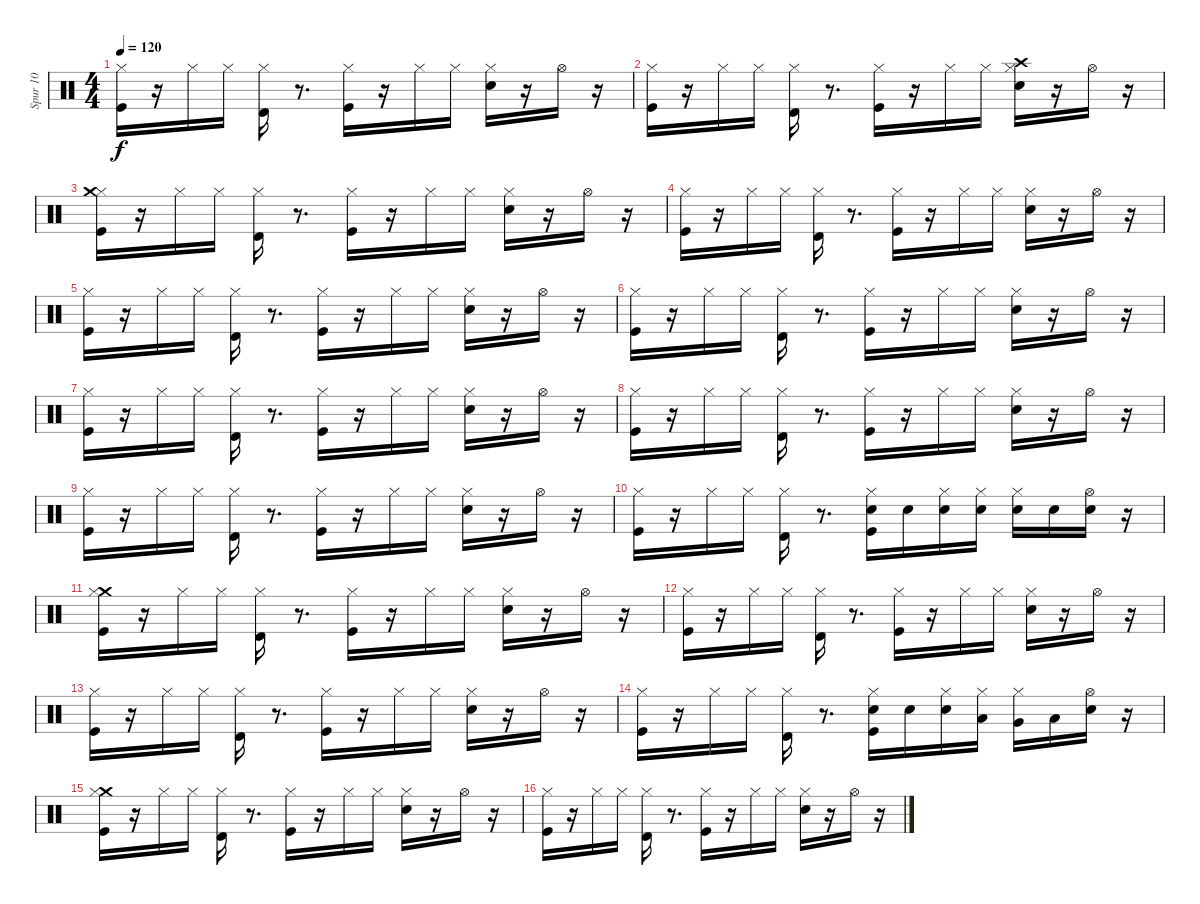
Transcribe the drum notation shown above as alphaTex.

\track ("Spur 10" "Spur 10") {instrument percussion}
\staff {score}
\articulation defaults
\ts (4 4)
\tempo 120
\clef neutral
\ks c
("Hi-Hat (closed)" "Kick (hit)").16{dy f} r.16 "Hi-Hat (closed)".16 "Hi-Hat (closed)".16 ("Hi-Hat (closed)" "Timbale high (hit)").16 r.8{d} ("Hi-Hat (closed)" "Kick (hit)").16 r.16 "Hi-Hat (closed)".16 "Hi-Hat (closed)".16 ("Hi-Hat (closed)" "Snare (hit) 2").16 r.16 "Hi-Hat (open)".16 r.16 |
("Hi-Hat (closed)" "Kick (hit)").16 r.16 "Hi-Hat (closed)".16 "Hi-Hat (closed)".16 ("Hi-Hat (closed)" "Timbale high (hit)").16 r.8{d} ("Hi-Hat (closed)" "Kick (hit)").16 r.16 "Hi-Hat (closed)".16 "Hi-Hat (closed)".16 ("Crash high (hit)" "Hi-Hat (closed)" "Snare (hit) 2").16 r.16 "Hi-Hat (open)".16 r.16 |
("Hi-Hat (closed)" "Kick (hit)" "Crash medium (hit)").16 r.16 "Hi-Hat (closed)".16 "Hi-Hat (closed)".16 ("Hi-Hat (closed)" "Timbale high (hit)").16 r.8{d} ("Hi-Hat (closed)" "Kick (hit)").16 r.16 "Hi-Hat (closed)".16 "Hi-Hat (closed)".16 ("Hi-Hat (closed)" "Snare (hit) 2").16 r.16 "Hi-Hat (open)".16 r.16 |
("Hi-Hat (closed)" "Kick (hit)").16 r.16 "Hi-Hat (closed)".16 "Hi-Hat (closed)".16 ("Hi-Hat (closed)" "Timbale high (hit)").16 r.8{d} ("Hi-Hat (closed)" "Kick (hit)").16 r.16 "Hi-Hat (closed)".16 "Hi-Hat (closed)".16 ("Hi-Hat (closed)" "Snare (hit) 2").16 r.16 "Hi-Hat (open)".16 r.16 |
("Hi-Hat (closed)" "Kick (hit)").16 r.16 "Hi-Hat (closed)".16 "Hi-Hat (closed)".16 ("Hi-Hat (closed)" "Timbale high (hit)").16 r.8{d} ("Hi-Hat (closed)" "Kick (hit)").16 r.16 "Hi-Hat (closed)".16 "Hi-Hat (closed)".16 ("Hi-Hat (closed)" "Snare (hit) 2").16 r.16 "Hi-Hat (open)".16 r.16 |
("Hi-Hat (closed)" "Kick (hit)").16 r.16 "Hi-Hat (closed)".16 "Hi-Hat (closed)".16 ("Hi-Hat (closed)" "Timbale high (hit)").16 r.8{d} ("Hi-Hat (closed)" "Kick (hit)").16 r.16 "Hi-Hat (closed)".16 "Hi-Hat (closed)".16 ("Hi-Hat (closed)" "Snare (hit) 2").16 r.16 "Hi-Hat (open)".16 r.16 |
("Hi-Hat (closed)" "Kick (hit)").16 r.16 "Hi-Hat (closed)".16 "Hi-Hat (closed)".16 ("Hi-Hat (closed)" "Timbale high (hit)").16 r.8{d} ("Hi-Hat (closed)" "Kick (hit)").16 r.16 "Hi-Hat (closed)".16 "Hi-Hat (closed)".16 ("Hi-Hat (closed)" "Snare (hit) 2").16 r.16 "Hi-Hat (open)".16 r.16 |
("Hi-Hat (closed)" "Kick (hit)").16 r.16 "Hi-Hat (closed)".16 "Hi-Hat (closed)".16 ("Hi-Hat (closed)" "Timbale high (hit)").16 r.8{d} ("Hi-Hat (closed)" "Kick (hit)").16 r.16 "Hi-Hat (closed)".16 "Hi-Hat (closed)".16 ("Hi-Hat (closed)" "Snare (hit) 2").16 r.16 "Hi-Hat (open)".16 r.16 |
("Hi-Hat (closed)" "Kick (hit)").16 r.16 "Hi-Hat (closed)".16 "Hi-Hat (closed)".16 ("Hi-Hat (closed)" "Timbale high (hit)").16 r.8{d} ("Hi-Hat (closed)" "Kick (hit)").16 r.16 "Hi-Hat (closed)".16 "Hi-Hat (closed)".16 ("Hi-Hat (closed)" "Snare (hit) 2").16 r.16 "Hi-Hat (open)".16 r.16 |
("Hi-Hat (closed)" "Kick (hit)").16 r.16 "Hi-Hat (closed)".16 "Hi-Hat (closed)".16 ("Hi-Hat (closed)" "Timbale high (hit)").16 r.8{d} ("Electric Snare (hit)" "Hi-Hat (closed)" "Kick (hit)").16 "Electric Snare (hit)".16 ("Electric Snare (hit)" "Hi-Hat (closed)").16 ("Electric Snare (hit)" "Hi-Hat (closed)").16 ("Hi-Hat (closed)" "Electric Snare (hit)").16 "Electric Snare (hit)".16 ("Electric Snare (hit)" "Hi-Hat (open)").16 r.16 |
("Crash medium (hit)" "Hi-Hat (closed)" "Kick (hit)").16 r.16 "Hi-Hat (closed)".16 "Hi-Hat (closed)".16 ("Hi-Hat (closed)" "Timbale high (hit)").16 r.8{d} ("Hi-Hat (closed)" "Kick (hit)").16 r.16 "Hi-Hat (closed)".16 "Hi-Hat (closed)".16 ("Hi-Hat (closed)" "Snare (hit) 2").16 r.16 "Hi-Hat (open)".16 r.16 |
("Hi-Hat (closed)" "Kick (hit)").16 r.16 "Hi-Hat (closed)".16 "Hi-Hat (closed)".16 ("Hi-Hat (closed)" "Timbale high (hit)").16 r.8{d} ("Hi-Hat (closed)" "Kick (hit)").16 r.16 "Hi-Hat (closed)".16 "Hi-Hat (closed)".16 ("Hi-Hat (closed)" "Snare (hit) 2").16 r.16 "Hi-Hat (open)".16 r.16 |
("Hi-Hat (closed)" "Kick (hit)").16 r.16 "Hi-Hat (closed)".16 "Hi-Hat (closed)".16 ("Hi-Hat (closed)" "Timbale high (hit)").16 r.8{d} ("Hi-Hat (closed)" "Kick (hit)").16 r.16 "Hi-Hat (closed)".16 "Hi-Hat (closed)".16 ("Hi-Hat (closed)" "Snare (hit) 2").16 r.16 "Hi-Hat (open)".16 r.16 |
("Hi-Hat (closed)" "Kick (hit)").16 r.16 "Hi-Hat (closed)".16 "Hi-Hat (closed)".16 ("Hi-Hat (closed)" "Timbale high (hit)").16 r.8{d} ("Electric Snare (hit)" "Hi-Hat (closed)" "Kick (hit)").16 "Electric Snare (hit)".16 ("Electric Snare (hit)" "Hi-Hat (closed)").16 ("Low Floor Tom (hit)" "Hi-Hat (closed)").16 ("Hi-Hat (closed)" "Very Low Tom (hit)").16 "Low Tom (hit)".16 ("Electric Snare (hit)" "Hi-Hat (open)").16 r.16 |
("Crash medium (hit)" "Hi-Hat (closed)" "Kick (hit)").16 r.16 "Hi-Hat (closed)".16 "Hi-Hat (closed)".16 ("Hi-Hat (closed)" "Timbale high (hit)").16 r.8{d} ("Hi-Hat (closed)" "Kick (hit)").16 r.16 "Hi-Hat (closed)".16 "Hi-Hat (closed)".16 ("Hi-Hat (closed)" "Snare (hit) 2").16 r.16 "Hi-Hat (open)".16 r.16 |
("Hi-Hat (closed)" "Kick (hit)").16 r.16 "Hi-Hat (closed)".16 "Hi-Hat (closed)".16 ("Hi-Hat (closed)" "Timbale high (hit)").16 r.8{d} ("Hi-Hat (closed)" "Kick (hit)").16 r.16 "Hi-Hat (closed)".16 "Hi-Hat (closed)".16 ("Hi-Hat (closed)" "Snare (hit) 2").16 r.16 "Hi-Hat (open)".16 r.16
